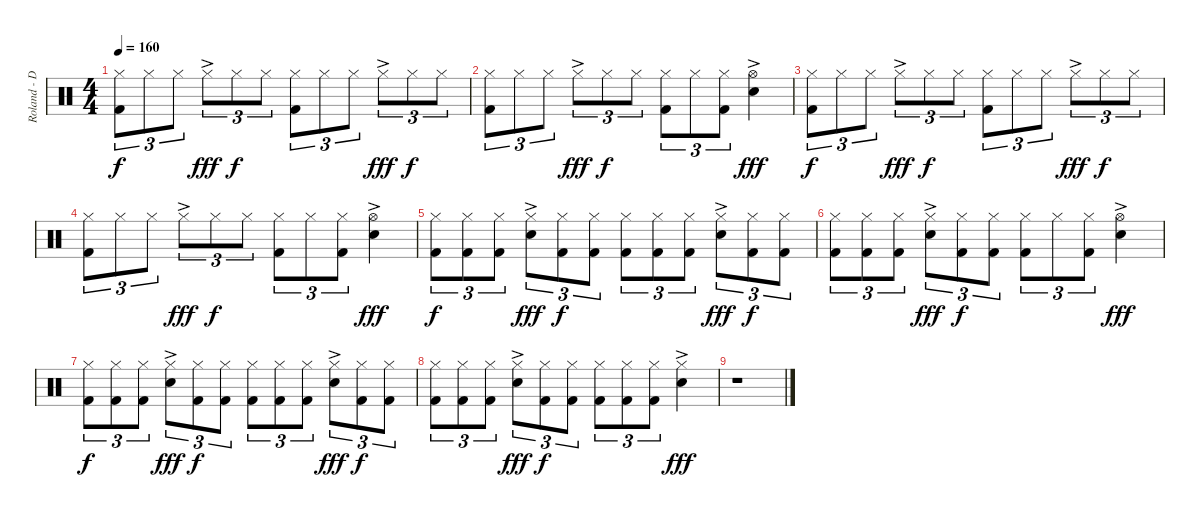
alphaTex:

\track ("Roland - Drums" "Roland - D") {instrument percussion}
\staff {score}
\articulation defaults
\ts (4 4)
\tempo 160
\clef neutral
\ks c
("Hi-Hat (closed)" "Kick (hit) 2").8{tu (3 2) dy f} "Hi-Hat (closed)".8{tu (3 2)} "Hi-Hat (closed)".8{tu (3 2)} "Hi-Hat (closed)"{ac}.8{tu (3 2) dy fff} "Hi-Hat (closed)".8{tu (3 2) dy f} "Hi-Hat (closed)".8{tu (3 2)} ("Hi-Hat (closed)" "Kick (hit) 2").8{tu (3 2)} "Hi-Hat (closed)".8{tu (3 2)} "Hi-Hat (closed)".8{tu (3 2)} "Hi-Hat (closed)"{ac}.8{tu (3 2) dy fff} "Hi-Hat (closed)".8{tu (3 2) dy f} "Hi-Hat (closed)".8{tu (3 2)} |
("Hi-Hat (closed)" "Kick (hit) 2").8{tu (3 2)} "Hi-Hat (closed)".8{tu (3 2)} "Hi-Hat (closed)".8{tu (3 2)} "Hi-Hat (closed)"{ac}.8{tu (3 2) dy fff} "Hi-Hat (closed)".8{tu (3 2) dy f} "Hi-Hat (closed)".8{tu (3 2)} ("Hi-Hat (closed)" "Kick (hit) 2").8{tu (3 2)} "Hi-Hat (closed)".8{tu (3 2)} ("Hi-Hat (closed)" "Kick (hit) 2").8{tu (3 2)} ("Hi-Hat (open)"{ac} "Snare (hit) 2").4{dy fff} |
("Hi-Hat (closed)" "Kick (hit) 2").8{tu (3 2) dy f} "Hi-Hat (closed)".8{tu (3 2)} "Hi-Hat (closed)".8{tu (3 2)} "Hi-Hat (closed)"{ac}.8{tu (3 2) dy fff} "Hi-Hat (closed)".8{tu (3 2) dy f} "Hi-Hat (closed)".8{tu (3 2)} ("Hi-Hat (closed)" "Kick (hit) 2").8{tu (3 2)} "Hi-Hat (closed)".8{tu (3 2)} "Hi-Hat (closed)".8{tu (3 2)} "Hi-Hat (closed)"{ac}.8{tu (3 2) dy fff} "Hi-Hat (closed)".8{tu (3 2) dy f} "Hi-Hat (closed)".8{tu (3 2)} |
("Hi-Hat (closed)" "Kick (hit) 2").8{tu (3 2)} "Hi-Hat (closed)".8{tu (3 2)} "Hi-Hat (closed)".8{tu (3 2)} "Hi-Hat (closed)"{ac}.8{tu (3 2) dy fff} "Hi-Hat (closed)".8{tu (3 2) dy f} "Hi-Hat (closed)".8{tu (3 2)} ("Hi-Hat (closed)" "Kick (hit) 2").8{tu (3 2)} "Hi-Hat (closed)".8{tu (3 2)} ("Hi-Hat (closed)" "Kick (hit) 2").8{tu (3 2)} ("Hi-Hat (open)"{ac} "Snare (hit) 2").4{dy fff} |
("Hi-Hat (closed)" "Kick (hit) 2").8{tu (3 2) dy f} ("Hi-Hat (closed)" "Kick (hit) 2").8{tu (3 2)} ("Hi-Hat (closed)" "Kick (hit) 2").8{tu (3 2)} ("Hi-Hat (closed)"{ac} "Snare (hit) 2").8{tu (3 2) dy fff} ("Hi-Hat (closed)" "Kick (hit) 2").8{tu (3 2) dy f} ("Hi-Hat (closed)" "Kick (hit) 2").8{tu (3 2)} ("Hi-Hat (closed)" "Kick (hit) 2").8{tu (3 2)} ("Hi-Hat (closed)" "Kick (hit) 2").8{tu (3 2)} ("Hi-Hat (closed)" "Kick (hit) 2").8{tu (3 2)} ("Hi-Hat (closed)"{ac} "Snare (hit) 2").8{tu (3 2) dy fff} ("Hi-Hat (closed)" "Kick (hit) 2").8{tu (3 2) dy f} ("Hi-Hat (closed)" "Kick (hit) 2").8{tu (3 2)} |
("Hi-Hat (closed)" "Kick (hit) 2").8{tu (3 2)} ("Hi-Hat (closed)" "Kick (hit) 2").8{tu (3 2)} ("Hi-Hat (closed)" "Kick (hit) 2").8{tu (3 2)} ("Hi-Hat (closed)"{ac} "Snare (hit) 2").8{tu (3 2) dy fff} ("Hi-Hat (closed)" "Kick (hit) 2").8{tu (3 2) dy f} ("Hi-Hat (closed)" "Kick (hit) 2").8{tu (3 2)} ("Hi-Hat (closed)" "Kick (hit) 2").8{tu (3 2)} "Hi-Hat (closed)".8{tu (3 2)} ("Hi-Hat (closed)" "Kick (hit) 2").8{tu (3 2)} ("Hi-Hat (open)"{ac} "Snare (hit) 2").4{dy fff} |
("Hi-Hat (closed)" "Kick (hit) 2").8{tu (3 2) dy f} ("Hi-Hat (closed)" "Kick (hit) 2").8{tu (3 2)} ("Hi-Hat (closed)" "Kick (hit) 2").8{tu (3 2)} ("Hi-Hat (closed)"{ac} "Snare (hit) 2").8{tu (3 2) dy fff} ("Hi-Hat (closed)" "Kick (hit) 2").8{tu (3 2) dy f} ("Hi-Hat (closed)" "Kick (hit) 2").8{tu (3 2)} ("Hi-Hat (closed)" "Kick (hit) 2").8{tu (3 2)} ("Hi-Hat (closed)" "Kick (hit) 2").8{tu (3 2)} ("Hi-Hat (closed)" "Kick (hit) 2").8{tu (3 2)} ("Hi-Hat (closed)"{ac} "Snare (hit) 2").8{tu (3 2) dy fff} ("Hi-Hat (closed)" "Kick (hit) 2").8{tu (3 2) dy f} ("Hi-Hat (closed)" "Kick (hit) 2").8{tu (3 2)} |
("Hi-Hat (closed)" "Kick (hit) 2").8{tu (3 2)} ("Hi-Hat (closed)" "Kick (hit) 2").8{tu (3 2)} ("Hi-Hat (closed)" "Kick (hit) 2").8{tu (3 2)} ("Hi-Hat (closed)"{ac} "Snare (hit) 2").8{tu (3 2) dy fff} ("Hi-Hat (closed)" "Kick (hit) 2").8{tu (3 2) dy f} ("Hi-Hat (closed)" "Kick (hit) 2").8{tu (3 2)} ("Hi-Hat (closed)" "Kick (hit) 2").8{tu (3 2)} ("Hi-Hat (closed)" "Kick (hit) 2").8{tu (3 2)} ("Hi-Hat (closed)" "Kick (hit) 2").8{tu (3 2)} ("Hi-Hat (closed)"{ac} "Snare (hit) 2").4{dy fff} |
r.1
